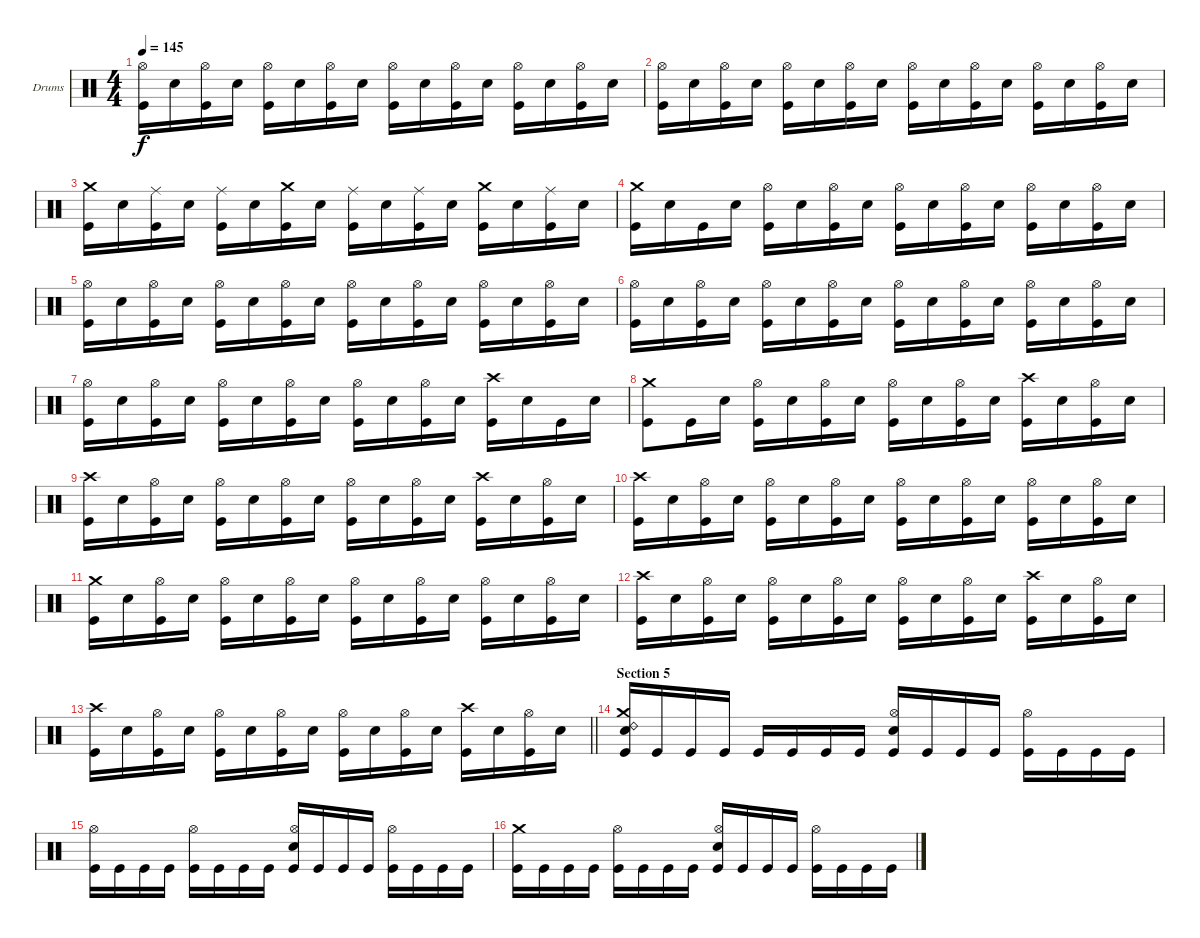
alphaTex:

\defaultSystemsLayout 4
\bracketExtendMode groupsimilarinstruments
\firstSystemTrackNameOrientation horizontal
\otherSystemsTrackNameOrientation horizontal
\track ("Drums" "Drums") {instrument percussion}
\staff {score}
\articulation defaults
\ts (4 4)
\tempo 145
\clef neutral
\ks c
("Kick (hit)" "Hi-Hat (open)").16{dy f} "Snare (hit) 2".16 ("Kick (hit)" "Hi-Hat (open)").16 "Snare (hit) 2".16 ("Kick (hit)" "Hi-Hat (open)").16 "Snare (hit) 2".16 ("Kick (hit)" "Hi-Hat (open)").16 "Snare (hit) 2".16 ("Kick (hit)" "Hi-Hat (open)").16 "Snare (hit) 2".16 ("Kick (hit)" "Hi-Hat (open)").16 "Snare (hit) 2".16 ("Kick (hit)" "Hi-Hat (open)").16 "Snare (hit) 2".16 ("Kick (hit)" "Hi-Hat (open)").16 "Snare (hit) 2".16 |
("Kick (hit)" "Hi-Hat (open)").16 "Snare (hit) 2".16 ("Kick (hit)" "Hi-Hat (open)").16 "Snare (hit) 2".16 ("Kick (hit)" "Hi-Hat (open)").16 "Snare (hit) 2".16 ("Kick (hit)" "Hi-Hat (open)").16 "Snare (hit) 2".16 ("Kick (hit)" "Hi-Hat (open)").16 "Snare (hit) 2".16 ("Kick (hit)" "Hi-Hat (open)").16 "Snare (hit) 2".16 ("Kick (hit)" "Hi-Hat (open)").16 "Snare (hit) 2".16 ("Kick (hit)" "Hi-Hat (open)").16 "Snare (hit) 2".16 |
("Kick (hit)" "Crash medium (hit)").16 "Snare (hit) 2".16 ("Kick (hit)" "Ride (middle)").16 "Snare (hit) 2".16 ("Kick (hit)" "Ride (middle)").16 "Snare (hit) 2".16 ("Kick (hit)" "Crash medium (hit)").16 "Snare (hit) 2".16 ("Kick (hit)" "Ride (middle)").16 "Snare (hit) 2".16 ("Kick (hit)" "Ride (middle)").16 "Snare (hit) 2".16 ("Kick (hit)" "Crash medium (hit)").16 "Snare (hit) 2".16 ("Kick (hit)" "Ride (middle)").16 "Snare (hit) 2".16 |
("Kick (hit)" "Crash medium (hit)").16 "Snare (hit) 2".16 "Kick (hit)".16 "Snare (hit) 2".16 ("Kick (hit)" "Hi-Hat (open)").16 "Snare (hit) 2".16 ("Kick (hit)" "Hi-Hat (open)").16 "Snare (hit) 2".16 ("Kick (hit)" "Hi-Hat (open)").16 "Snare (hit) 2".16 ("Kick (hit)" "Hi-Hat (open)").16 "Snare (hit) 2".16 ("Kick (hit)" "Hi-Hat (open)").16 "Snare (hit) 2".16 ("Kick (hit)" "Hi-Hat (open)").16 "Snare (hit) 2".16 |
("Kick (hit)" "Hi-Hat (open)").16 "Snare (hit) 2".16 ("Kick (hit)" "Hi-Hat (open)").16 "Snare (hit) 2".16 ("Kick (hit)" "Hi-Hat (open)").16 "Snare (hit) 2".16 ("Kick (hit)" "Hi-Hat (open)").16 "Snare (hit) 2".16 ("Kick (hit)" "Hi-Hat (open)").16 "Snare (hit) 2".16 ("Kick (hit)" "Hi-Hat (open)").16 "Snare (hit) 2".16 ("Kick (hit)" "Hi-Hat (open)").16 "Snare (hit) 2".16 ("Kick (hit)" "Hi-Hat (open)").16 "Snare (hit) 2".16 |
("Kick (hit)" "Hi-Hat (open)").16 "Snare (hit) 2".16 ("Kick (hit)" "Hi-Hat (open)").16 "Snare (hit) 2".16 ("Kick (hit)" "Hi-Hat (open)").16 "Snare (hit) 2".16 ("Kick (hit)" "Hi-Hat (open)").16 "Snare (hit) 2".16 ("Kick (hit)" "Hi-Hat (open)").16 "Snare (hit) 2".16 ("Kick (hit)" "Hi-Hat (open)").16 "Snare (hit) 2".16 ("Kick (hit)" "Hi-Hat (open)").16 "Snare (hit) 2".16 ("Kick (hit)" "Hi-Hat (open)").16 "Snare (hit) 2".16 |
("Kick (hit)" "Hi-Hat (open)").16 "Snare (hit) 2".16 ("Kick (hit)" "Hi-Hat (open)").16 "Snare (hit) 2".16 ("Kick (hit)" "Hi-Hat (open)").16 "Snare (hit) 2".16 ("Kick (hit)" "Hi-Hat (open)").16 "Snare (hit) 2".16 ("Kick (hit)" "Hi-Hat (open)").16 "Snare (hit) 2".16 ("Kick (hit)" "Hi-Hat (open)").16 "Snare (hit) 2".16 ("Kick (hit)" "Crash high (hit)").16 "Snare (hit) 2".16 "Kick (hit)".16 "Snare (hit) 2".16 |
("Kick (hit)" "Crash medium (hit)").8 "Kick (hit)".16 "Snare (hit) 2".16 ("Kick (hit)" "Hi-Hat (open)").16 "Snare (hit) 2".16 ("Kick (hit)" "Hi-Hat (open)").16 "Snare (hit) 2".16 ("Kick (hit)" "Hi-Hat (open)").16 "Snare (hit) 2".16 ("Kick (hit)" "Hi-Hat (open)").16 "Snare (hit) 2".16 ("Kick (hit)" "Crash high (hit)").16 "Snare (hit) 2".16 ("Kick (hit)" "Hi-Hat (open)").16 "Snare (hit) 2".16 |
("Kick (hit)" "Crash high (hit)").16 "Snare (hit) 2".16 ("Kick (hit)" "Hi-Hat (open)").16 "Snare (hit) 2".16 ("Kick (hit)" "Hi-Hat (open)").16 "Snare (hit) 2".16 ("Kick (hit)" "Hi-Hat (open)").16 "Snare (hit) 2".16 ("Kick (hit)" "Hi-Hat (open)").16 "Snare (hit) 2".16 ("Kick (hit)" "Hi-Hat (open)").16 "Snare (hit) 2".16 ("Kick (hit)" "Crash high (hit)").16 "Snare (hit) 2".16 ("Kick (hit)" "Hi-Hat (open)").16 "Snare (hit) 2".16 |
("Kick (hit)" "Crash high (hit)").16 "Snare (hit) 2".16 ("Kick (hit)" "Hi-Hat (open)").16 "Snare (hit) 2".16 ("Kick (hit)" "Hi-Hat (open)").16 "Snare (hit) 2".16 ("Kick (hit)" "Hi-Hat (open)").16 "Snare (hit) 2".16 ("Kick (hit)" "Hi-Hat (open)").16 "Snare (hit) 2".16 ("Kick (hit)" "Hi-Hat (open)").16 "Snare (hit) 2".16 ("Kick (hit)" "Hi-Hat (open)").16 "Snare (hit) 2".16 ("Kick (hit)" "Hi-Hat (open)").16 "Snare (hit) 2".16 |
("Kick (hit)" "Crash medium (hit)").16 "Snare (hit) 2".16 ("Kick (hit)" "Hi-Hat (open)").16 "Snare (hit) 2".16 ("Kick (hit)" "Hi-Hat (open)").16 "Snare (hit) 2".16 ("Kick (hit)" "Hi-Hat (open)").16 "Snare (hit) 2".16 ("Kick (hit)" "Hi-Hat (open)").16 "Snare (hit) 2".16 ("Kick (hit)" "Hi-Hat (open)").16 "Snare (hit) 2".16 ("Kick (hit)" "Hi-Hat (open)").16 "Snare (hit) 2".16 ("Kick (hit)" "Hi-Hat (open)").16 "Snare (hit) 2".16 |
("Kick (hit)" "Crash high (hit)").16 "Snare (hit) 2".16 ("Kick (hit)" "Hi-Hat (open)").16 "Snare (hit) 2".16 ("Kick (hit)" "Hi-Hat (open)").16 "Snare (hit) 2".16 ("Kick (hit)" "Hi-Hat (open)").16 "Snare (hit) 2".16 ("Kick (hit)" "Hi-Hat (open)").16 "Snare (hit) 2".16 ("Kick (hit)" "Hi-Hat (open)").16 "Snare (hit) 2".16 ("Kick (hit)" "Crash high (hit)").16 "Snare (hit) 2".16 ("Kick (hit)" "Hi-Hat (open)").16 "Snare (hit) 2".16 |
\barLineRight lightlight
("Kick (hit)" "Crash high (hit)").16 "Snare (hit) 2".16 ("Kick (hit)" "Hi-Hat (open)").16 "Snare (hit) 2".16 ("Kick (hit)" "Hi-Hat (open)").16 "Snare (hit) 2".16 ("Kick (hit)" "Hi-Hat (open)").16 "Snare (hit) 2".16 ("Kick (hit)" "Hi-Hat (open)").16 "Snare (hit) 2".16 ("Kick (hit)" "Hi-Hat (open)").16 "Snare (hit) 2".16 ("Kick (hit)" "Crash high (hit)").16 "Snare (hit) 2".16 ("Kick (hit)" "Hi-Hat (open)").16 "Snare (hit) 2".16 |
\section ("" "Section 5")
("Kick (hit)" "Ride (bell) 2" "Crash medium (hit)" "Snare (hit) 2").16 "Kick (hit)".16 "Kick (hit)".16 "Kick (hit)".16 "Kick (hit)".16 "Kick (hit)".16 "Kick (hit)".16 "Kick (hit)".16 ("Snare (hit) 2" "Hi-Hat (open)" "Kick (hit)").16 "Kick (hit)".16 "Kick (hit)".16 "Kick (hit)".16 ("Kick (hit)" "Hi-Hat (open)").16 "Kick (hit)".16 "Kick (hit)".16 "Kick (hit)".16 |
("Kick (hit)" "Hi-Hat (open)").16 "Kick (hit)".16 "Kick (hit)".16 "Kick (hit)".16 ("Kick (hit)" "Hi-Hat (open)").16 "Kick (hit)".16 "Kick (hit)".16 "Kick (hit)".16 ("Snare (hit) 2" "Hi-Hat (open)" "Kick (hit)").16 "Kick (hit)".16 "Kick (hit)".16 "Kick (hit)".16 ("Kick (hit)" "Hi-Hat (open)").16 "Kick (hit)".16 "Kick (hit)".16 "Kick (hit)".16 |
("Kick (hit)" "Crash medium (hit)").16 "Kick (hit)".16 "Kick (hit)".16 "Kick (hit)".16 ("Kick (hit)" "Hi-Hat (open)").16 "Kick (hit)".16 "Kick (hit)".16 "Kick (hit)".16 ("Snare (hit) 2" "Hi-Hat (open)" "Kick (hit)").16 "Kick (hit)".16 "Kick (hit)".16 "Kick (hit)".16 ("Kick (hit)" "Hi-Hat (open)").16 "Kick (hit)".16 "Kick (hit)".16 "Kick (hit)".16
